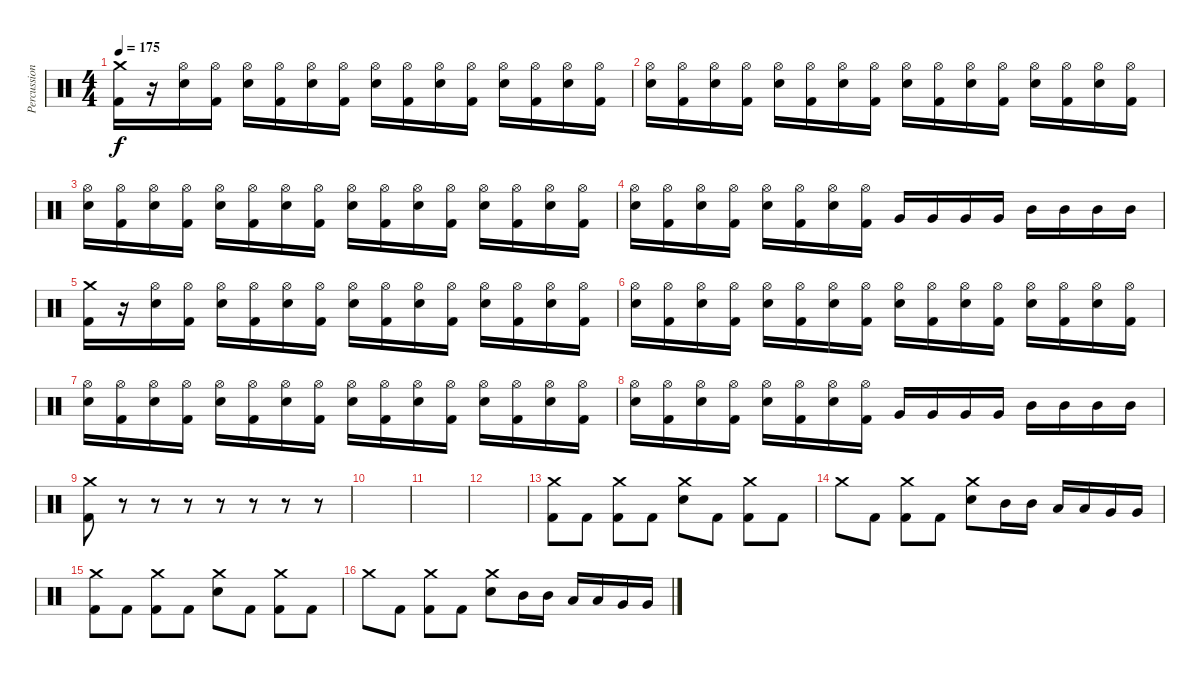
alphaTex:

\track ("Percussion" "Percussion") {instrument percussion}
\staff {score}
\articulation defaults
\ts (4 4)
\tempo 175
\clef neutral
\ks c
("Kick (hit) 2" "Crash medium (hit)").16{dy f} r.16 ("Electric Snare (hit)" "Hi-Hat (open)").16 ("Kick (hit) 2" "Hi-Hat (open)").16 ("Electric Snare (hit)" "Hi-Hat (open)").16 ("Kick (hit) 2" "Hi-Hat (open)").16 ("Electric Snare (hit)" "Hi-Hat (open)").16 ("Kick (hit) 2" "Hi-Hat (open)").16 ("Electric Snare (hit)" "Hi-Hat (open)").16 ("Kick (hit) 2" "Hi-Hat (open)").16 ("Electric Snare (hit)" "Hi-Hat (open)").16 ("Kick (hit) 2" "Hi-Hat (open)").16 ("Electric Snare (hit)" "Hi-Hat (open)").16 ("Kick (hit) 2" "Hi-Hat (open)").16 ("Electric Snare (hit)" "Hi-Hat (open)").16 ("Kick (hit) 2" "Hi-Hat (open)").16 |
("Electric Snare (hit)" "Hi-Hat (open)").16 ("Kick (hit) 2" "Hi-Hat (open)").16 ("Electric Snare (hit)" "Hi-Hat (open)").16 ("Kick (hit) 2" "Hi-Hat (open)").16 ("Electric Snare (hit)" "Hi-Hat (open)").16 ("Kick (hit) 2" "Hi-Hat (open)").16 ("Electric Snare (hit)" "Hi-Hat (open)").16 ("Kick (hit) 2" "Hi-Hat (open)").16 ("Electric Snare (hit)" "Hi-Hat (open)").16 ("Kick (hit) 2" "Hi-Hat (open)").16 ("Electric Snare (hit)" "Hi-Hat (open)").16 ("Kick (hit) 2" "Hi-Hat (open)").16 ("Electric Snare (hit)" "Hi-Hat (open)").16 ("Kick (hit) 2" "Hi-Hat (open)").16 ("Electric Snare (hit)" "Hi-Hat (open)").16 ("Kick (hit) 2" "Hi-Hat (open)").16 |
("Electric Snare (hit)" "Hi-Hat (open)").16 ("Kick (hit) 2" "Hi-Hat (open)").16 ("Electric Snare (hit)" "Hi-Hat (open)").16 ("Kick (hit) 2" "Hi-Hat (open)").16 ("Electric Snare (hit)" "Hi-Hat (open)").16 ("Kick (hit) 2" "Hi-Hat (open)").16 ("Electric Snare (hit)" "Hi-Hat (open)").16 ("Kick (hit) 2" "Hi-Hat (open)").16 ("Electric Snare (hit)" "Hi-Hat (open)").16 ("Kick (hit) 2" "Hi-Hat (open)").16 ("Electric Snare (hit)" "Hi-Hat (open)").16 ("Kick (hit) 2" "Hi-Hat (open)").16 ("Electric Snare (hit)" "Hi-Hat (open)").16 ("Kick (hit) 2" "Hi-Hat (open)").16 ("Electric Snare (hit)" "Hi-Hat (open)").16 ("Kick (hit) 2" "Hi-Hat (open)").16 |
("Electric Snare (hit)" "Hi-Hat (open)").16 ("Kick (hit) 2" "Hi-Hat (open)").16 ("Electric Snare (hit)" "Hi-Hat (open)").16 ("Kick (hit) 2" "Hi-Hat (open)").16 ("Electric Snare (hit)" "Hi-Hat (open)").16 ("Kick (hit) 2" "Hi-Hat (open)").16 ("Electric Snare (hit)" "Hi-Hat (open)").16 ("Kick (hit) 2" "Hi-Hat (open)").16 "Very Low Tom (hit)".16 "Very Low Tom (hit)".16 "Very Low Tom (hit)".16 "Very Low Tom (hit)".16 "Mid Tom (hit)".16 "Mid Tom (hit)".16 "Mid Tom (hit)".16 "Mid Tom (hit)".16 |
("Kick (hit) 2" "Crash medium (hit)").16 r.16 ("Electric Snare (hit)" "Hi-Hat (open)").16 ("Kick (hit) 2" "Hi-Hat (open)").16 ("Electric Snare (hit)" "Hi-Hat (open)").16 ("Kick (hit) 2" "Hi-Hat (open)").16 ("Electric Snare (hit)" "Hi-Hat (open)").16 ("Kick (hit) 2" "Hi-Hat (open)").16 ("Electric Snare (hit)" "Hi-Hat (open)").16 ("Kick (hit) 2" "Hi-Hat (open)").16 ("Electric Snare (hit)" "Hi-Hat (open)").16 ("Kick (hit) 2" "Hi-Hat (open)").16 ("Electric Snare (hit)" "Hi-Hat (open)").16 ("Kick (hit) 2" "Hi-Hat (open)").16 ("Electric Snare (hit)" "Hi-Hat (open)").16 ("Kick (hit) 2" "Hi-Hat (open)").16 |
("Electric Snare (hit)" "Hi-Hat (open)").16 ("Kick (hit) 2" "Hi-Hat (open)").16 ("Electric Snare (hit)" "Hi-Hat (open)").16 ("Kick (hit) 2" "Hi-Hat (open)").16 ("Electric Snare (hit)" "Hi-Hat (open)").16 ("Kick (hit) 2" "Hi-Hat (open)").16 ("Electric Snare (hit)" "Hi-Hat (open)").16 ("Kick (hit) 2" "Hi-Hat (open)").16 ("Electric Snare (hit)" "Hi-Hat (open)").16 ("Kick (hit) 2" "Hi-Hat (open)").16 ("Electric Snare (hit)" "Hi-Hat (open)").16 ("Kick (hit) 2" "Hi-Hat (open)").16 ("Electric Snare (hit)" "Hi-Hat (open)").16 ("Kick (hit) 2" "Hi-Hat (open)").16 ("Electric Snare (hit)" "Hi-Hat (open)").16 ("Kick (hit) 2" "Hi-Hat (open)").16 |
("Electric Snare (hit)" "Hi-Hat (open)").16 ("Kick (hit) 2" "Hi-Hat (open)").16 ("Electric Snare (hit)" "Hi-Hat (open)").16 ("Kick (hit) 2" "Hi-Hat (open)").16 ("Electric Snare (hit)" "Hi-Hat (open)").16 ("Kick (hit) 2" "Hi-Hat (open)").16 ("Electric Snare (hit)" "Hi-Hat (open)").16 ("Kick (hit) 2" "Hi-Hat (open)").16 ("Electric Snare (hit)" "Hi-Hat (open)").16 ("Kick (hit) 2" "Hi-Hat (open)").16 ("Electric Snare (hit)" "Hi-Hat (open)").16 ("Kick (hit) 2" "Hi-Hat (open)").16 ("Electric Snare (hit)" "Hi-Hat (open)").16 ("Kick (hit) 2" "Hi-Hat (open)").16 ("Electric Snare (hit)" "Hi-Hat (open)").16 ("Kick (hit) 2" "Hi-Hat (open)").16 |
("Electric Snare (hit)" "Hi-Hat (open)").16 ("Kick (hit) 2" "Hi-Hat (open)").16 ("Electric Snare (hit)" "Hi-Hat (open)").16 ("Kick (hit) 2" "Hi-Hat (open)").16 ("Electric Snare (hit)" "Hi-Hat (open)").16 ("Kick (hit) 2" "Hi-Hat (open)").16 ("Electric Snare (hit)" "Hi-Hat (open)").16 ("Kick (hit) 2" "Hi-Hat (open)").16 "Very Low Tom (hit)".16 "Very Low Tom (hit)".16 "Very Low Tom (hit)".16 "Very Low Tom (hit)".16 "Mid Tom (hit)".16 "Mid Tom (hit)".16 "Mid Tom (hit)".16 "Mid Tom (hit)".16 |
("Kick (hit) 2" "Crash medium (hit)").8 r.8 r.8 r.8 r.8 r.8 r.8 r.8 |
|
|
|
("Kick (hit) 2" "Crash medium (hit)").8 "Kick (hit) 2".8 ("Kick (hit) 2" "Crash medium (hit)").8 "Kick (hit) 2".8 ("Electric Snare (hit)" "Crash medium (hit)").8 "Kick (hit) 2".8 ("Kick (hit) 2" "Crash medium (hit)").8 "Kick (hit) 2".8 |
"Crash medium (hit)".8 "Kick (hit) 2".8 ("Kick (hit) 2" "Crash medium (hit)").8 "Kick (hit) 2".8 ("Electric Snare (hit)" "Crash medium (hit)").8 "Mid Tom (hit)".16 "Mid Tom (hit)".16 "Low Tom (hit)".16 "Low Tom (hit)".16 "Very Low Tom (hit)".16 "Very Low Tom (hit)".16 |
("Kick (hit) 2" "Crash medium (hit)").8 "Kick (hit) 2".8 ("Kick (hit) 2" "Crash medium (hit)").8 "Kick (hit) 2".8 ("Electric Snare (hit)" "Crash medium (hit)").8 "Kick (hit) 2".8 ("Kick (hit) 2" "Crash medium (hit)").8 "Kick (hit) 2".8 |
"Crash medium (hit)".8 "Kick (hit) 2".8 ("Kick (hit) 2" "Crash medium (hit)").8 "Kick (hit) 2".8 ("Electric Snare (hit)" "Crash medium (hit)").8 "Mid Tom (hit)".16 "Mid Tom (hit)".16 "Low Tom (hit)".16 "Low Tom (hit)".16 "Very Low Tom (hit)".16 "Very Low Tom (hit)".16
